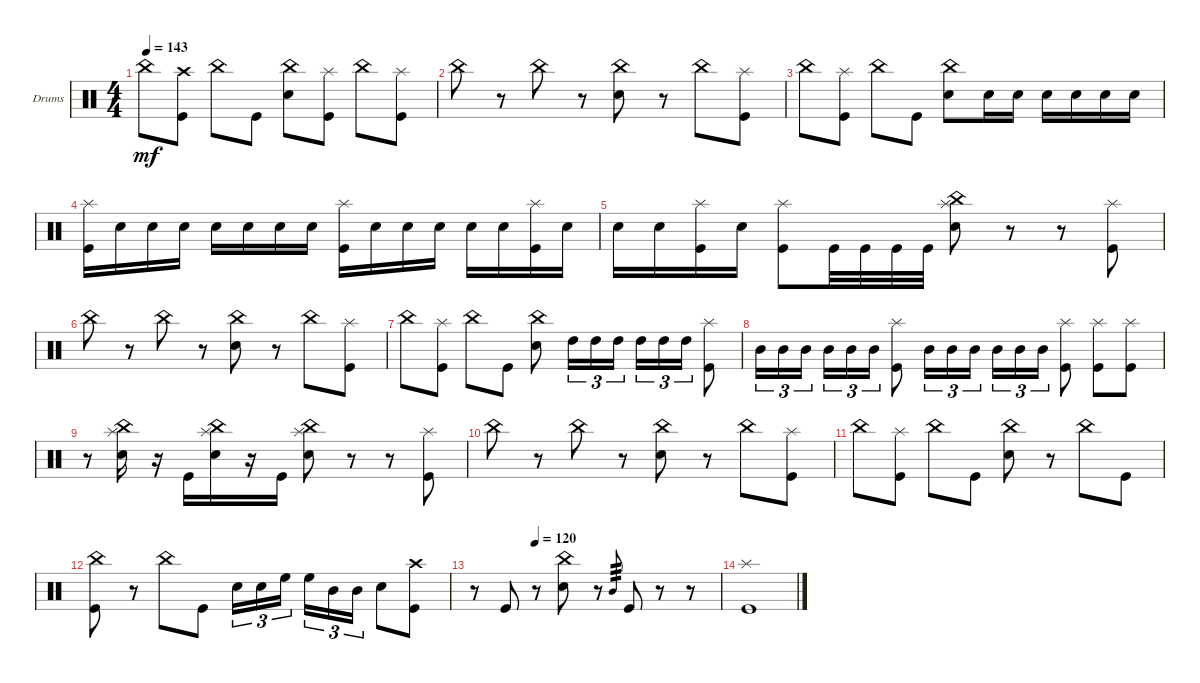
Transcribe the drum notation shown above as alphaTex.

\bracketExtendMode groupsimilarinstruments
\firstSystemTrackNameOrientation horizontal
\otherSystemsTrackNameOrientation horizontal
\track ("death drumz" "Drums") {instrument percussion}
\staff {score}
\articulation defaults
\ts (4 4)
\tempo 143
\clef neutral
\ks c "China (hit)".8{dy mf}
("Kick (hit)" "Crash high (hit)").8 "China (hit)".8 "Kick (hit)".8 ("Snare (hit) 2" "China (hit)").8 ("Kick (hit)" "Splash (hit)").8 "China (hit)".8 ("Kick (hit)" "Splash (hit)").8 |
"China (hit)".8 r.8 "China (hit)".8 r.8 ("Snare (hit) 2" "China (hit)").8 r.8 "China (hit)".8 ("Kick (hit)" "Splash (hit)").8 |
"China (hit)".8 ("Kick (hit)" "Splash (hit)").8 "China (hit)".8 "Kick (hit)".8 ("Snare (hit) 2" "China (hit)").8 "Snare (hit) 2".16 "Snare (hit) 2".16 "Snare (hit) 2".16 "Snare (hit) 2".16 "Snare (hit) 2".16 "Snare (hit) 2".16 |
("Splash (hit)" "Kick (hit)").16 "Snare (hit) 2".16 "Snare (hit) 2".16 "Snare (hit) 2".16 "Snare (hit) 2".16 "Snare (hit) 2".16 "Snare (hit) 2".16 "Snare (hit) 2".16 ("Kick (hit)" "Splash (hit)").16 "Snare (hit) 2".16 "Snare (hit) 2".16 "Snare (hit) 2".16 "Snare (hit) 2".16 "Snare (hit) 2".16 ("Kick (hit)" "Splash (hit)").16 "Snare (hit) 2".16 |
"Snare (hit) 2".16 "Snare (hit) 2".16 ("Kick (hit)" "Splash (hit)").16 "Snare (hit) 2".16 ("Kick (hit)" "Splash (hit)").8 "Kick (hit)".32 "Kick (hit)".32 "Kick (hit)".32 "Kick (hit)".32 ("Snare (hit) 2" "Splash (hit)" "China (hit)").8 r.8 r.8 ("Kick (hit)" "Splash (hit)").8 |
"China (hit)".8 r.8 "China (hit)".8 r.8 ("Snare (hit) 2" "China (hit)").8 r.8 "China (hit)".8 ("Kick (hit)" "Splash (hit)").8 |
"China (hit)".8 ("Kick (hit)" "Splash (hit)").8 "China (hit)".8 "Kick (hit)".8 ("Snare (hit) 2" "China (hit)").8 "High Tom (hit)".16{tu (3 2)} "High Tom (hit)".16{tu (3 2)} "High Tom (hit)".16{tu (3 2)} "High Tom (hit)".16{tu (3 2)} "High Tom (hit)".16{tu (3 2)} "High Tom (hit)".16{tu (3 2)} ("Kick (hit)" "Splash (hit)").8 |
"Mid Tom (hit)".16{tu (3 2)} "Mid Tom (hit)".16{tu (3 2)} "Mid Tom (hit)".16{tu (3 2)} "Mid Tom (hit)".16{tu (3 2)} "Mid Tom (hit)".16{tu (3 2)} "Mid Tom (hit)".16{tu (3 2)} ("Kick (hit)" "Splash (hit)").8 "Mid Tom (hit)".16{tu (3 2)} "Mid Tom (hit)".16{tu (3 2)} "Mid Tom (hit)".16{tu (3 2)} "Mid Tom (hit)".16{tu (3 2)} "Mid Tom (hit)".16{tu (3 2)} "Mid Tom (hit)".16{tu (3 2)} ("Kick (hit)" "Splash (hit)").8 ("Kick (hit)" "Splash (hit)").8 ("Kick (hit)" "Splash (hit)").8 |
r.8 ("Snare (hit) 2" "China (hit)" "Splash (hit)").16 r.16 "Kick (hit)".16 ("Snare (hit) 2" "Splash (hit)" "China (hit)").16 r.16 "Kick (hit)".16 ("Snare (hit) 2" "China (hit)" "Splash (hit)").8 r.8 r.8 ("Kick (hit)" "Splash (hit)").8 |
"China (hit)".8 r.8 "China (hit)".8 r.8 ("Snare (hit) 2" "China (hit)").8 r.8 "China (hit)".8 ("Kick (hit)" "Splash (hit)").8 |
"China (hit)".8 ("Kick (hit)" "Splash (hit)").8 "China (hit)".8 "Kick (hit)".8 ("Snare (hit) 2" "China (hit)").8 r.8 "China (hit)".8 "Kick (hit)".8 |
("Kick (hit)" "China (hit)").8 r.8 "China (hit)".8 "Kick (hit)".8 "Snare (hit) 2".16{tu (3 2)} "Snare (hit) 2".16{tu (3 2)} "High Floor Tom (hit)".16{tu (3 2)} "High Floor Tom (hit)".16{tu (3 2)} "Mid Tom (hit)".16{tu (3 2)} "Mid Tom (hit)".16{tu (3 2)} "Snare (hit) 2".8 ("Kick (hit)" "Crash high (hit)").8 |
\tempo (120 0.25)
r.8 "Kick (hit)".8 r.8 ("Snare (hit) 2" "China (hit)").8 r.8 "Mid Tom (hit)".8{gr onbeat tp 3} "Kick (hit)".8 r.8 r.8 |
("Kick (hit)" "Splash (hit)").1
